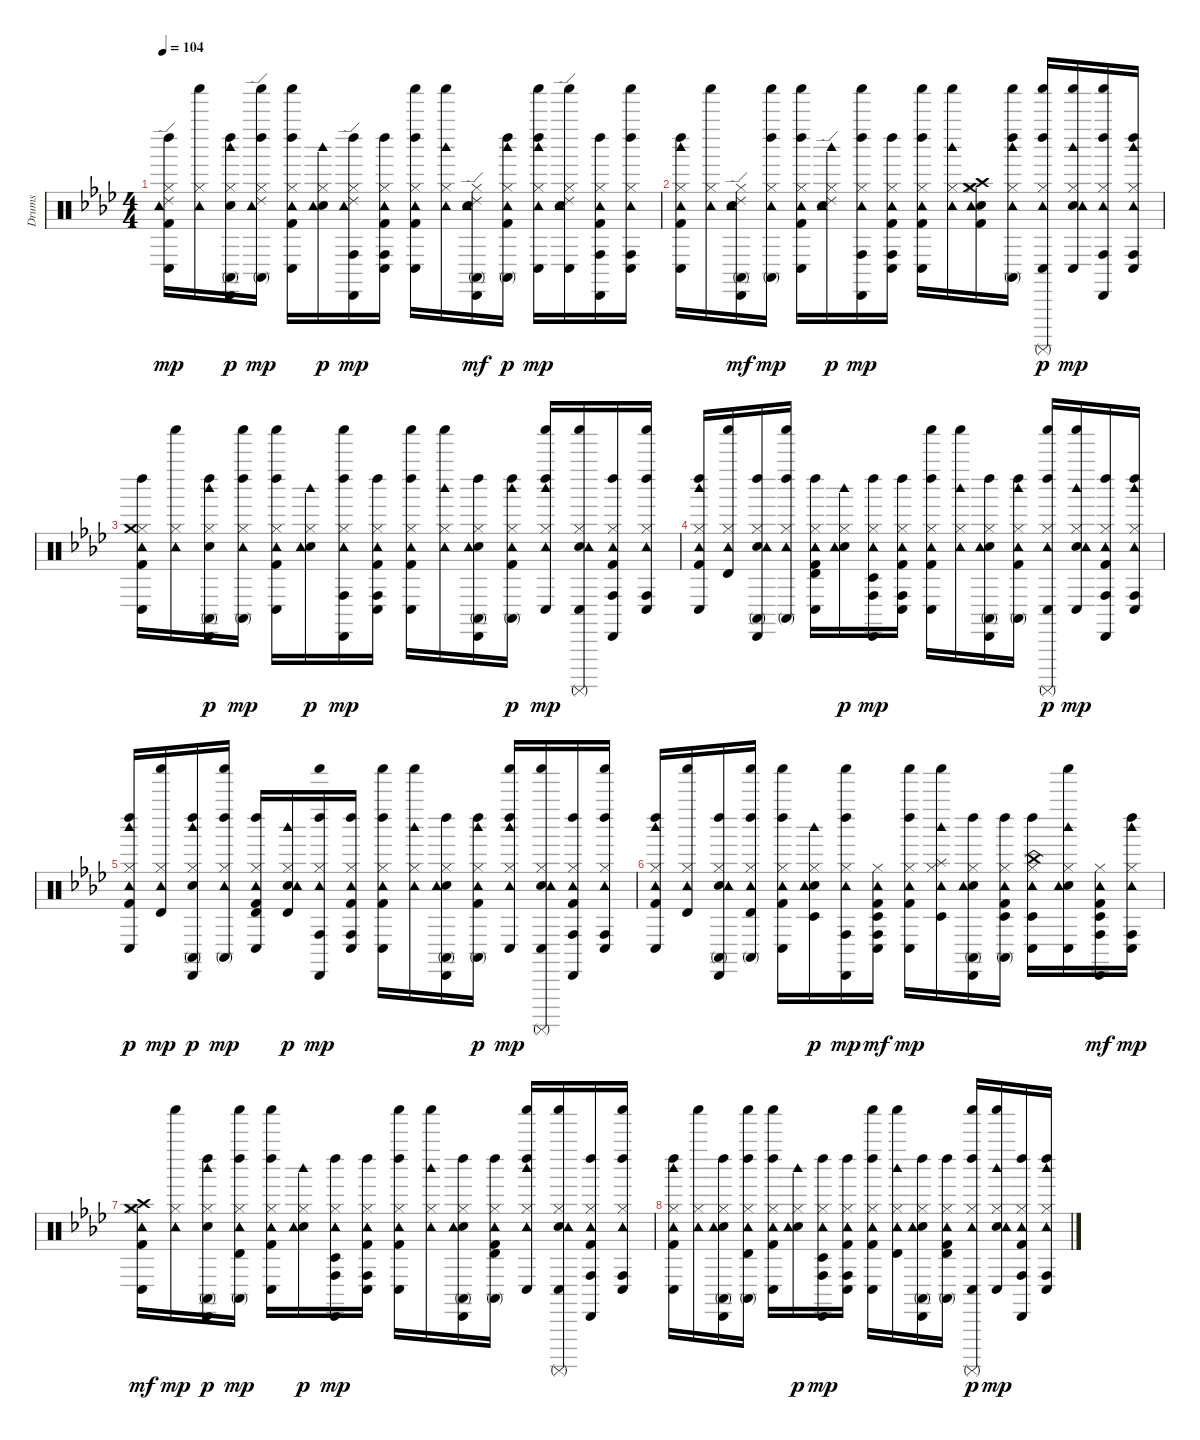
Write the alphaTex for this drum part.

\track ("Drums" "Drums") {instrument percussion}
\staff {score}
\articulation defaults
\ts (4 4)
\tempo 104
\clef neutral
\ks ab
("Kick (hit) 2" "Hi-Hat (closed)" "Tambourine (hit)" "Ride (edge) 2" "Conga low (hit)" "Left Maraca (hit)").16{dy mp} ("Hi-Hat (closed)" "Tambourine (hit)" "Shaker (hit)").16 ("Hand Clap (hit)" "Hi-Hat (closed)" "Conga high (mute)" "Cabasa (hit)" "Left Maraca (hit)" "Woodblock high (hit)").16{dy p} ("Hi-Hat (closed)" "Tambourine (hit)" "Ride (edge) 2" "Conga high (mute)" "Left Maraca (hit)" "Shaker (hit)").16{dy mp} ("Kick (hit) 2" "Hi-Hat (closed)" "Tambourine (hit)" "Conga low (hit)" "Left Maraca (hit)" "Shaker (hit)").16 ("Hand Clap (hit)" "Hi-Hat (closed)" "Tambourine (hit)" "Woodblock high (hit)").16{dy p} ("Hi-Hat (closed)" "Tambourine (hit)" "Ride (edge) 2" "Conga high (hit)" "Cabasa (hit)" "Left Maraca (hit)").16{dy mp} ("Kick (hit) 2" "Hi-Hat (closed)" "Tambourine (hit)" "Conga high (hit)" "Conga low (hit)" "Left Maraca (hit)").16 ("Kick (hit) 2" "Hi-Hat (closed)" "Tambourine (hit)" "Conga low (hit)" "Left Maraca (hit)" "Shaker (hit)").16 ("Hi-Hat (closed)" "Tambourine (hit)" "Woodblock high (hit)" "Shaker (hit)").16 ("Hand Clap (hit)" "Hi-Hat (closed)" "Tambourine (hit)" "Ride (edge) 2" "Conga high (mute)" "Cabasa (hit)").16{dy mf} ("Kick (hit) 2" "Hi-Hat (closed)" "Tambourine (hit)" "Conga high (mute)" "Left Maraca (hit)" "Woodblock high (hit)").16{dy p} ("Hi-Hat (closed)" "Tambourine (hit)" "Conga low (hit)" "Left Maraca (hit)" "Woodblock high (hit)" "Shaker (hit)").16{dy mp} ("Hand Clap (hit)" "Hi-Hat (closed)" "Tambourine (hit)" "Ride (edge) 2" "Conga low (hit)" "Shaker (hit)").16 ("Kick (hit) 2" "Hi-Hat (closed)" "Tambourine (hit)" "Conga high (hit)" "Cabasa (hit)" "Left Maraca (hit)").16 ("Hi-Hat (closed)" "Tambourine (hit)" "Conga high (hit)" "Conga low (hit)" "Left Maraca (hit)" "Shaker (hit)").16 |
("Kick (hit) 2" "Hi-Hat (closed)" "Tambourine (hit)" "Conga low (hit)" "Left Maraca (hit)" "Woodblock high (hit)").16 ("Hi-Hat (closed)" "Tambourine (hit)" "Shaker (hit)").16 ("Hand Clap (hit)" "Hi-Hat (closed)" "Tambourine (hit)" "Ride (edge) 2" "Conga high (mute)" "Cabasa (hit)").16{dy mf} ("Hi-Hat (closed)" "Tambourine (hit)" "Conga high (mute)" "Left Maraca (hit)" "Shaker (hit)").16{dy mp} ("Kick (hit) 2" "Hi-Hat (closed)" "Tambourine (hit)" "Conga low (hit)" "Left Maraca (hit)" "Shaker (hit)").16 ("Hand Clap (hit)" "Hi-Hat (closed)" "Tambourine (hit)" "Ride (edge) 2" "Woodblock high (hit)").16{dy p} ("Hi-Hat (closed)" "Tambourine (hit)" "Conga high (hit)" "Cabasa (hit)" "Left Maraca (hit)" "Shaker (hit)").16{dy mp} ("Kick (hit) 2" "Hi-Hat (closed)" "Tambourine (hit)" "Conga high (hit)" "Conga low (hit)" "Left Maraca (hit)").16 ("Kick (hit) 2" "Hi-Hat (closed)" "Tambourine (hit)" "Conga low (hit)" "Left Maraca (hit)" "Shaker (hit)").16 ("Hi-Hat (closed)" "Tambourine (hit)" "Woodblock high (hit)" "Shaker (hit)").16 ("Kick (hit) 2" "Hand Clap (hit)" "Hi-Hat (closed)" "Crash high (hit)" "Tambourine (hit)" "Crash medium (hit)").16 ("Hi-Hat (closed)" "Tambourine (hit)" "Conga high (mute)" "Left Maraca (hit)" "Woodblock high (hit)" "Shaker (hit)").16 ("Hi-Hat (closed)" "Tambourine (hit)" "Conga low (hit)" "Left Maraca (hit)" "Shaker (hit)" "Surdo (mute)").16{dy p} ("Hand Clap (hit)" "Hi-Hat (closed)" "Tambourine (hit)" "Conga low (hit)" "Woodblock high (hit)" "Shaker (hit)").16{dy mp} ("Hi-Hat (closed)" "Tambourine (hit)" "Conga high (hit)" "Cabasa (hit)" "Left Maraca (hit)" "Shaker (hit)").16 ("Hi-Hat (closed)" "Tambourine (hit)" "Conga high (hit)" "Conga low (hit)" "Left Maraca (hit)" "Woodblock high (hit)").16 |
("Kick (hit) 2" "Hi-Hat (closed)" "Tambourine (hit)" "Crash medium (hit)" "Conga low (hit)" "Left Maraca (hit)").16 ("Hi-Hat (closed)" "Tambourine (hit)" "Shaker (hit)").16 ("Hand Clap (hit)" "Hi-Hat (closed)" "Conga high (mute)" "Cabasa (hit)" "Left Maraca (hit)" "Woodblock high (hit)").16{dy p} ("Hi-Hat (closed)" "Tambourine (hit)" "Conga high (mute)" "Left Maraca (hit)" "Shaker (hit)").16{dy mp} ("Kick (hit) 2" "Hi-Hat (closed)" "Tambourine (hit)" "Conga low (hit)" "Left Maraca (hit)" "Shaker (hit)").16 ("Hand Clap (hit)" "Hi-Hat (closed)" "Tambourine (hit)" "Woodblock high (hit)").16{dy p} ("Hi-Hat (closed)" "Tambourine (hit)" "Conga high (hit)" "Cabasa (hit)" "Left Maraca (hit)" "Shaker (hit)").16{dy mp} ("Kick (hit) 2" "Hi-Hat (closed)" "Tambourine (hit)" "Conga high (hit)" "Conga low (hit)" "Left Maraca (hit)").16 ("Kick (hit) 2" "Hi-Hat (closed)" "Tambourine (hit)" "Conga low (hit)" "Left Maraca (hit)" "Shaker (hit)").16 ("Hi-Hat (closed)" "Tambourine (hit)" "Woodblock high (hit)" "Shaker (hit)").16 ("Hand Clap (hit)" "Hi-Hat (closed)" "Tambourine (hit)" "Conga high (mute)" "Cabasa (hit)" "Left Maraca (hit)").16 ("Kick (hit) 2" "Hi-Hat (closed)" "Tambourine (hit)" "Conga high (mute)" "Left Maraca (hit)" "Woodblock high (hit)").16{dy p} ("Hi-Hat (closed)" "Tambourine (hit)" "Conga low (hit)" "Left Maraca (hit)" "Woodblock high (hit)" "Shaker (hit)").16{dy mp} ("Hand Clap (hit)" "Hi-Hat (closed)" "Tambourine (hit)" "Conga low (hit)" "Shaker (hit)" "Surdo (mute)").16 ("Kick (hit) 2" "Hi-Hat (closed)" "Tambourine (hit)" "Conga high (hit)" "Cabasa (hit)" "Left Maraca (hit)").16 ("Hi-Hat (closed)" "Tambourine (hit)" "Conga high (hit)" "Conga low (hit)" "Left Maraca (hit)" "Shaker (hit)").16 |
("Kick (hit) 2" "Hi-Hat (closed)" "Tambourine (hit)" "Conga low (hit)" "Left Maraca (hit)" "Woodblock high (hit)").16 ("Hi-Hat (closed)" "Tambourine (hit)" "Timbale high (hit)" "Shaker (hit)").16 ("Hand Clap (hit)" "Hi-Hat (closed)" "Tambourine (hit)" "Conga high (mute)" "Cabasa (hit)" "Left Maraca (hit)").16 ("Hi-Hat (closed)" "Tambourine (hit)" "Conga high (mute)" "Left Maraca (hit)" "Shaker (hit)").16 ("Kick (hit) 2" "Hi-Hat (closed)" "Tambourine (hit)" "Conga low (hit)" "Timbale high (hit)" "Left Maraca (hit)").16 ("Hand Clap (hit)" "Hi-Hat (closed)" "Tambourine (hit)" "Woodblock high (hit)").16{dy p} ("Hi-Hat (closed)" "Tambourine (hit)" "Conga high (hit)" "Timbale low (hit)" "Cabasa (hit)" "Left Maraca (hit)").16{dy mp} ("Kick (hit) 2" "Hi-Hat (closed)" "Tambourine (hit)" "Conga high (hit)" "Conga low (hit)" "Left Maraca (hit)").16 ("Kick (hit) 2" "Hi-Hat (closed)" "Tambourine (hit)" "Conga low (hit)" "Left Maraca (hit)" "Shaker (hit)").16 ("Hi-Hat (closed)" "Tambourine (hit)" "Woodblock high (hit)" "Shaker (hit)").16 ("Hand Clap (hit)" "Hi-Hat (closed)" "Tambourine (hit)" "Conga high (mute)" "Cabasa (hit)" "Left Maraca (hit)").16 ("Kick (hit) 2" "Hi-Hat (closed)" "Tambourine (hit)" "Conga high (mute)" "Left Maraca (hit)" "Woodblock high (hit)").16 ("Hi-Hat (closed)" "Tambourine (hit)" "Conga low (hit)" "Left Maraca (hit)" "Shaker (hit)" "Surdo (mute)").16{dy p} ("Hand Clap (hit)" "Hi-Hat (closed)" "Tambourine (hit)" "Conga low (hit)" "Woodblock high (hit)" "Shaker (hit)").16{dy mp} ("Kick (hit) 2" "Hi-Hat (closed)" "Tambourine (hit)" "Conga high (hit)" "Cabasa (hit)" "Left Maraca (hit)").16 ("Hi-Hat (closed)" "Tambourine (hit)" "Conga high (hit)" "Conga low (hit)" "Left Maraca (hit)" "Woodblock high (hit)").16 |
("Kick (hit) 2" "Hi-Hat (closed)" "Tambourine (hit)" "Conga low (hit)" "Left Maraca (hit)" "Woodblock high (hit)").16{dy p} ("Hi-Hat (closed)" "Tambourine (hit)" "Timbale high (hit)" "Shaker (hit)").16{dy mp} ("Hand Clap (hit)" "Hi-Hat (closed)" "Conga high (mute)" "Cabasa (hit)" "Left Maraca (hit)" "Woodblock high (hit)").16{dy p} ("Hi-Hat (closed)" "Tambourine (hit)" "Conga high (mute)" "Left Maraca (hit)" "Shaker (hit)").16{dy mp} ("Kick (hit) 2" "Hi-Hat (closed)" "Tambourine (hit)" "Conga low (hit)" "Timbale high (hit)" "Left Maraca (hit)").16 ("Hand Clap (hit)" "Hi-Hat (closed)" "Tambourine (hit)" "Timbale high (hit)" "Woodblock high (hit)").16{dy p} ("Hi-Hat (closed)" "Tambourine (hit)" "Conga high (hit)" "Cabasa (hit)" "Left Maraca (hit)" "Shaker (hit)").16{dy mp} ("Kick (hit) 2" "Hi-Hat (closed)" "Tambourine (hit)" "Conga high (hit)" "Conga low (hit)" "Left Maraca (hit)").16 ("Kick (hit) 2" "Hi-Hat (closed)" "Tambourine (hit)" "Conga low (hit)" "Left Maraca (hit)" "Shaker (hit)").16 ("Hi-Hat (closed)" "Tambourine (hit)" "Woodblock high (hit)" "Shaker (hit)").16 ("Hand Clap (hit)" "Hi-Hat (closed)" "Tambourine (hit)" "Conga high (mute)" "Cabasa (hit)" "Left Maraca (hit)").16 ("Kick (hit) 2" "Hi-Hat (closed)" "Tambourine (hit)" "Conga high (mute)" "Left Maraca (hit)" "Woodblock high (hit)").16{dy p} ("Hi-Hat (closed)" "Tambourine (hit)" "Conga low (hit)" "Left Maraca (hit)" "Woodblock high (hit)" "Shaker (hit)").16{dy mp} ("Hand Clap (hit)" "Hi-Hat (closed)" "Tambourine (hit)" "Conga low (hit)" "Shaker (hit)" "Surdo (mute)").16 ("Kick (hit) 2" "Hi-Hat (closed)" "Tambourine (hit)" "Conga high (hit)" "Cabasa (hit)" "Left Maraca (hit)").16 ("Hi-Hat (closed)" "Tambourine (hit)" "Conga high (hit)" "Conga low (hit)" "Left Maraca (hit)" "Shaker (hit)").16 |
("Kick (hit) 2" "Hi-Hat (closed)" "Tambourine (hit)" "Conga low (hit)" "Left Maraca (hit)" "Woodblock high (hit)").16 ("Hi-Hat (closed)" "Tambourine (hit)" "Timbale high (hit)" "Shaker (hit)").16 ("Hand Clap (hit)" "Hi-Hat (closed)" "Tambourine (hit)" "Conga high (mute)" "Cabasa (hit)" "Left Maraca (hit)").16 ("Hi-Hat (closed)" "Tambourine (hit)" "Conga high (mute)" "Timbale high (hit)" "Left Maraca (hit)" "Shaker (hit)").16 ("Kick (hit) 2" "Hi-Hat (closed)" "Tambourine (hit)" "Conga low (hit)" "Left Maraca (hit)" "Shaker (hit)").16 ("Hand Clap (hit)" "Hi-Hat (closed)" "Tambourine (hit)" "Timbale low (hit)" "Woodblock high (hit)").16{dy p} ("Hi-Hat (closed)" "Tambourine (hit)" "Conga high (hit)" "Cabasa (hit)" "Left Maraca (hit)" "Shaker (hit)").16{dy mp} ("Kick (hit) 2" "Hi-Hat (closed)" "Tambourine (hit)" "Conga high (hit)" "Conga low (hit)" "Timbale low (hit)").16{dy mf} ("Kick (hit) 2" "Hi-Hat (closed)" "Tambourine (hit)" "Conga low (hit)" "Left Maraca (hit)" "Shaker (hit)").16{dy mp} ("Hi-Hat (closed)" "Tambourine (hit)" "Splash (hit)" "Timbale low (hit)" "Woodblock high (hit)" "Shaker (hit)").16 ("Hand Clap (hit)" "Hi-Hat (closed)" "Tambourine (hit)" "Conga high (mute)" "Cabasa (hit)" "Left Maraca (hit)").16 ("Kick (hit) 2" "Hi-Hat (closed)" "Tambourine (hit)" "Conga high (mute)" "Timbale low (hit)" "Left Maraca (hit)").16 ("Hi-Hat (closed)" "China (hit)" "Tambourine (hit)" "Conga low (hit)" "Timbale low (hit)" "Left Maraca (hit)").16 ("Hand Clap (hit)" "Hi-Hat (closed)" "Tambourine (hit)" "Conga low (hit)" "Woodblock high (hit)" "Shaker (hit)").16 ("Kick (hit) 2" "Hi-Hat (closed)" "Tambourine (hit)" "Conga high (hit)" "Timbale low (hit)" "Cabasa (hit)").16{dy mf} ("Hi-Hat (closed)" "Tambourine (hit)" "Conga high (hit)" "Conga low (hit)" "Left Maraca (hit)" "Woodblock high (hit)").16{dy mp} |
("Kick (hit) 2" "Hi-Hat (closed)" "Crash high (hit)" "Tambourine (hit)" "Crash medium (hit)" "Conga low (hit)").16{dy mf} ("Hi-Hat (closed)" "Tambourine (hit)" "Shaker (hit)").16{dy mp} ("Hand Clap (hit)" "Hi-Hat (closed)" "Conga high (mute)" "Cabasa (hit)" "Left Maraca (hit)" "Woodblock high (hit)").16{dy p} ("Hi-Hat (closed)" "Tambourine (hit)" "Conga high (mute)" "Timbale high (hit)" "Left Maraca (hit)" "Shaker (hit)").16{dy mp} ("Kick (hit) 2" "Hi-Hat (closed)" "Tambourine (hit)" "Conga low (hit)" "Left Maraca (hit)" "Shaker (hit)").16 ("Hand Clap (hit)" "Hi-Hat (closed)" "Tambourine (hit)" "Woodblock high (hit)").16{dy p} ("Hi-Hat (closed)" "Tambourine (hit)" "Conga high (hit)" "Timbale low (hit)" "Cabasa (hit)" "Left Maraca (hit)").16{dy mp} ("Kick (hit) 2" "Hi-Hat (closed)" "Tambourine (hit)" "Conga high (hit)" "Conga low (hit)" "Left Maraca (hit)").16 ("Kick (hit) 2" "Hi-Hat (closed)" "Tambourine (hit)" "Conga low (hit)" "Left Maraca (hit)" "Shaker (hit)").16 ("Hi-Hat (closed)" "Tambourine (hit)" "Woodblock high (hit)" "Shaker (hit)").16 ("Hand Clap (hit)" "Hi-Hat (closed)" "Tambourine (hit)" "Conga high (mute)" "Cabasa (hit)" "Left Maraca (hit)").16 ("Kick (hit) 2" "Hi-Hat (closed)" "Tambourine (hit)" "Conga high (mute)" "Timbale high (hit)" "Left Maraca (hit)").16 ("Hi-Hat (closed)" "Tambourine (hit)" "Conga low (hit)" "Left Maraca (hit)" "Woodblock high (hit)" "Shaker (hit)").16 ("Hand Clap (hit)" "Hi-Hat (closed)" "Tambourine (hit)" "Conga low (hit)" "Shaker (hit)" "Surdo (mute)").16 ("Kick (hit) 2" "Hi-Hat (closed)" "Tambourine (hit)" "Conga high (hit)" "Cabasa (hit)" "Left Maraca (hit)").16 ("Hi-Hat (closed)" "Tambourine (hit)" "Conga high (hit)" "Conga low (hit)" "Left Maraca (hit)" "Shaker (hit)").16 |
("Kick (hit) 2" "Hi-Hat (closed)" "Tambourine (hit)" "Conga low (hit)" "Left Maraca (hit)" "Woodblock high (hit)").16 ("Hi-Hat (closed)" "Tambourine (hit)" "Shaker (hit)").16 ("Hand Clap (hit)" "Hi-Hat (closed)" "Tambourine (hit)" "Conga high (mute)" "Cabasa (hit)" "Left Maraca (hit)").16 ("Hi-Hat (closed)" "Tambourine (hit)" "Conga high (mute)" "Timbale high (hit)" "Left Maraca (hit)" "Shaker (hit)").16 ("Kick (hit) 2" "Hi-Hat (closed)" "Tambourine (hit)" "Conga low (hit)" "Left Maraca (hit)" "Shaker (hit)").16 ("Hand Clap (hit)" "Hi-Hat (closed)" "Tambourine (hit)" "Woodblock high (hit)").16{dy p} ("Hi-Hat (closed)" "Tambourine (hit)" "Conga high (hit)" "Timbale low (hit)" "Cabasa (hit)" "Left Maraca (hit)").16{dy mp} ("Kick (hit) 2" "Hi-Hat (closed)" "Tambourine (hit)" "Conga high (hit)" "Conga low (hit)" "Left Maraca (hit)").16 ("Kick (hit) 2" "Hi-Hat (closed)" "Tambourine (hit)" "Conga low (hit)" "Left Maraca (hit)" "Shaker (hit)").16 ("Hi-Hat (closed)" "Tambourine (hit)" "Timbale high (hit)" "Woodblock high (hit)" "Shaker (hit)").16 ("Hand Clap (hit)" "Hi-Hat (closed)" "Tambourine (hit)" "Conga high (mute)" "Cabasa (hit)" "Left Maraca (hit)").16 ("Kick (hit) 2" "Hi-Hat (closed)" "Tambourine (hit)" "Conga high (mute)" "Timbale high (hit)" "Left Maraca (hit)").16 ("Hi-Hat (closed)" "Tambourine (hit)" "Conga low (hit)" "Left Maraca (hit)" "Shaker (hit)" "Surdo (mute)").16{dy p} ("Hand Clap (hit)" "Hi-Hat (closed)" "Tambourine (hit)" "Conga low (hit)" "Woodblock high (hit)" "Shaker (hit)").16{dy mp} ("Kick (hit) 2" "Hi-Hat (closed)" "Tambourine (hit)" "Conga high (hit)" "Cabasa (hit)" "Left Maraca (hit)").16 ("Hi-Hat (closed)" "Tambourine (hit)" "Conga high (hit)" "Conga low (hit)" "Left Maraca (hit)" "Woodblock high (hit)").16
